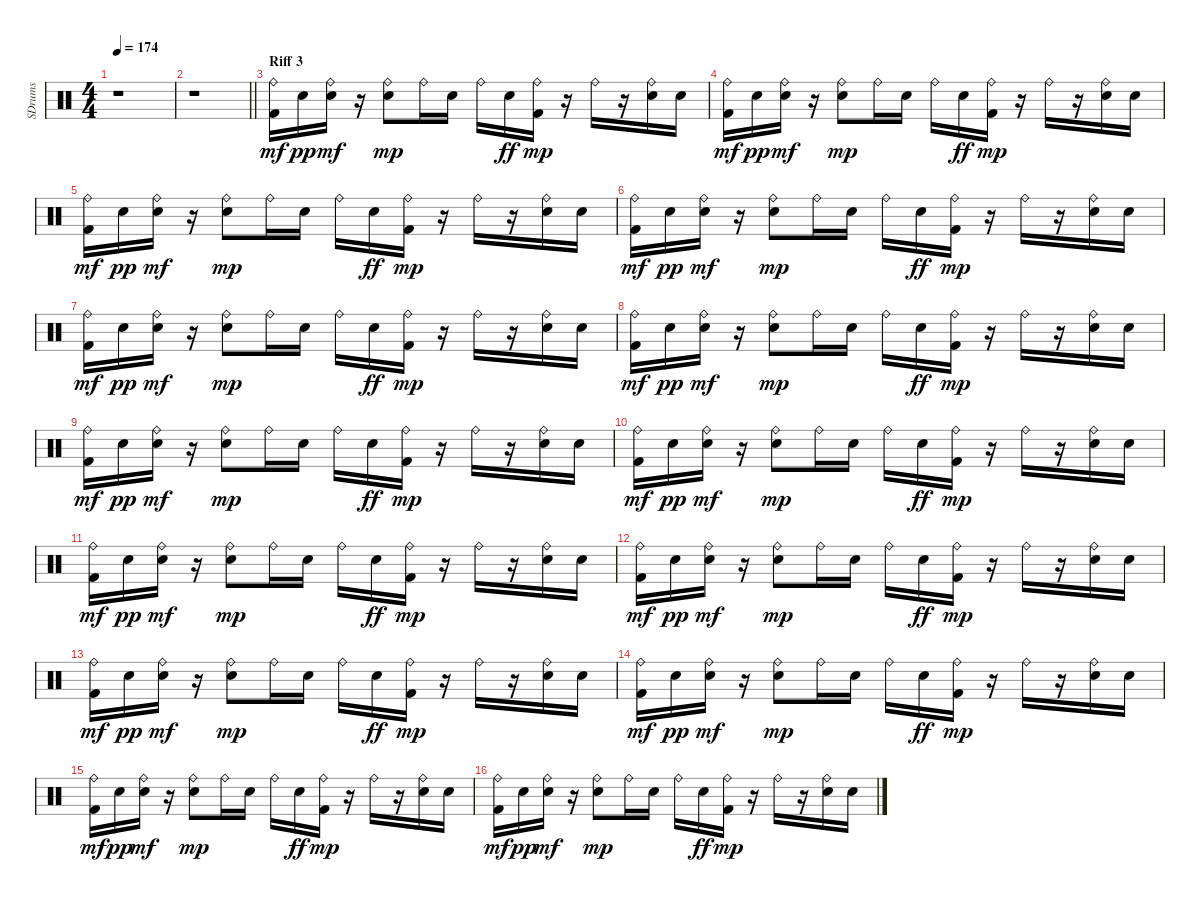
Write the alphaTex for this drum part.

\track ("SDrums" "SDrums") {instrument percussion}
\staff {score}
\articulation defaults
\ts (4 4)
\tempo 174
\clef neutral
\ks c
r.1{dy mp} |
\barLineRight lightlight
r.1 |
\section ("" "Riff 3")
("Kick (hit) 2" "Ride (bell)").16{dy mf} "Snare (hit) 2".16{dy pp} ("Snare (hit) 2" "Ride (bell)").16{dy mf} r.16 ("Snare (hit) 2" "Ride (bell)").8{dy mp} "Ride (bell)".16 "Snare (hit) 2".16 "Ride (bell)".16 "Snare (hit) 2".16{dy ff} ("Kick (hit) 2" "Ride (bell)").16{dy mp} r.16 "Ride (bell)".16 r.16 ("Snare (hit) 2" "Ride (bell)").16 "Snare (hit) 2".16 |
("Kick (hit) 2" "Ride (bell)").16{dy mf} "Snare (hit) 2".16{dy pp} ("Snare (hit) 2" "Ride (bell)").16{dy mf} r.16 ("Snare (hit) 2" "Ride (bell)").8{dy mp} "Ride (bell)".16 "Snare (hit) 2".16 "Ride (bell)".16 "Snare (hit) 2".16{dy ff} ("Kick (hit) 2" "Ride (bell)").16{dy mp} r.16 "Ride (bell)".16 r.16 ("Snare (hit) 2" "Ride (bell)").16 "Snare (hit) 2".16 |
("Kick (hit) 2" "Ride (bell)").16{dy mf} "Snare (hit) 2".16{dy pp} ("Snare (hit) 2" "Ride (bell)").16{dy mf} r.16 ("Snare (hit) 2" "Ride (bell)").8{dy mp} "Ride (bell)".16 "Snare (hit) 2".16 "Ride (bell)".16 "Snare (hit) 2".16{dy ff} ("Kick (hit) 2" "Ride (bell)").16{dy mp} r.16 "Ride (bell)".16 r.16 ("Snare (hit) 2" "Ride (bell)").16 "Snare (hit) 2".16 |
("Kick (hit) 2" "Ride (bell)").16{dy mf} "Snare (hit) 2".16{dy pp} ("Snare (hit) 2" "Ride (bell)").16{dy mf} r.16 ("Snare (hit) 2" "Ride (bell)").8{dy mp} "Ride (bell)".16 "Snare (hit) 2".16 "Ride (bell)".16 "Snare (hit) 2".16{dy ff} ("Kick (hit) 2" "Ride (bell)").16{dy mp} r.16 "Ride (bell)".16 r.16 ("Snare (hit) 2" "Ride (bell)").16 "Snare (hit) 2".16 |
("Kick (hit) 2" "Ride (bell)").16{dy mf} "Snare (hit) 2".16{dy pp} ("Snare (hit) 2" "Ride (bell)").16{dy mf} r.16 ("Snare (hit) 2" "Ride (bell)").8{dy mp} "Ride (bell)".16 "Snare (hit) 2".16 "Ride (bell)".16 "Snare (hit) 2".16{dy ff} ("Kick (hit) 2" "Ride (bell)").16{dy mp} r.16 "Ride (bell)".16 r.16 ("Snare (hit) 2" "Ride (bell)").16 "Snare (hit) 2".16 |
("Kick (hit) 2" "Ride (bell)").16{dy mf} "Snare (hit) 2".16{dy pp} ("Snare (hit) 2" "Ride (bell)").16{dy mf} r.16 ("Snare (hit) 2" "Ride (bell)").8{dy mp} "Ride (bell)".16 "Snare (hit) 2".16 "Ride (bell)".16 "Snare (hit) 2".16{dy ff} ("Kick (hit) 2" "Ride (bell)").16{dy mp} r.16 "Ride (bell)".16 r.16 ("Snare (hit) 2" "Ride (bell)").16 "Snare (hit) 2".16 |
("Kick (hit) 2" "Ride (bell)").16{dy mf} "Snare (hit) 2".16{dy pp} ("Snare (hit) 2" "Ride (bell)").16{dy mf} r.16 ("Snare (hit) 2" "Ride (bell)").8{dy mp} "Ride (bell)".16 "Snare (hit) 2".16 "Ride (bell)".16 "Snare (hit) 2".16{dy ff} ("Kick (hit) 2" "Ride (bell)").16{dy mp} r.16 "Ride (bell)".16 r.16 ("Snare (hit) 2" "Ride (bell)").16 "Snare (hit) 2".16 |
("Kick (hit) 2" "Ride (bell)").16{dy mf} "Snare (hit) 2".16{dy pp} ("Snare (hit) 2" "Ride (bell)").16{dy mf} r.16 ("Snare (hit) 2" "Ride (bell)").8{dy mp} "Ride (bell)".16 "Snare (hit) 2".16 "Ride (bell)".16 "Snare (hit) 2".16{dy ff} ("Kick (hit) 2" "Ride (bell)").16{dy mp} r.16 "Ride (bell)".16 r.16 ("Snare (hit) 2" "Ride (bell)").16 "Snare (hit) 2".16 |
("Kick (hit) 2" "Ride (bell)").16{dy mf} "Snare (hit) 2".16{dy pp} ("Snare (hit) 2" "Ride (bell)").16{dy mf} r.16 ("Snare (hit) 2" "Ride (bell)").8{dy mp} "Ride (bell)".16 "Snare (hit) 2".16 "Ride (bell)".16 "Snare (hit) 2".16{dy ff} ("Kick (hit) 2" "Ride (bell)").16{dy mp} r.16 "Ride (bell)".16 r.16 ("Snare (hit) 2" "Ride (bell)").16 "Snare (hit) 2".16 |
("Kick (hit) 2" "Ride (bell)").16{dy mf} "Snare (hit) 2".16{dy pp} ("Snare (hit) 2" "Ride (bell)").16{dy mf} r.16 ("Snare (hit) 2" "Ride (bell)").8{dy mp} "Ride (bell)".16 "Snare (hit) 2".16 "Ride (bell)".16 "Snare (hit) 2".16{dy ff} ("Kick (hit) 2" "Ride (bell)").16{dy mp} r.16 "Ride (bell)".16 r.16 ("Snare (hit) 2" "Ride (bell)").16 "Snare (hit) 2".16 |
("Kick (hit) 2" "Ride (bell)").16{dy mf} "Snare (hit) 2".16{dy pp} ("Snare (hit) 2" "Ride (bell)").16{dy mf} r.16 ("Snare (hit) 2" "Ride (bell)").8{dy mp} "Ride (bell)".16 "Snare (hit) 2".16 "Ride (bell)".16 "Snare (hit) 2".16{dy ff} ("Kick (hit) 2" "Ride (bell)").16{dy mp} r.16 "Ride (bell)".16 r.16 ("Snare (hit) 2" "Ride (bell)").16 "Snare (hit) 2".16 |
("Kick (hit) 2" "Ride (bell)").16{dy mf} "Snare (hit) 2".16{dy pp} ("Snare (hit) 2" "Ride (bell)").16{dy mf} r.16 ("Snare (hit) 2" "Ride (bell)").8{dy mp} "Ride (bell)".16 "Snare (hit) 2".16 "Ride (bell)".16 "Snare (hit) 2".16{dy ff} ("Kick (hit) 2" "Ride (bell)").16{dy mp} r.16 "Ride (bell)".16 r.16 ("Snare (hit) 2" "Ride (bell)").16 "Snare (hit) 2".16 |
("Kick (hit) 2" "Ride (bell)").16{dy mf} "Snare (hit) 2".16{dy pp} ("Snare (hit) 2" "Ride (bell)").16{dy mf} r.16 ("Snare (hit) 2" "Ride (bell)").8{dy mp} "Ride (bell)".16 "Snare (hit) 2".16 "Ride (bell)".16 "Snare (hit) 2".16{dy ff} ("Kick (hit) 2" "Ride (bell)").16{dy mp} r.16 "Ride (bell)".16 r.16 ("Snare (hit) 2" "Ride (bell)").16 "Snare (hit) 2".16 |
("Kick (hit) 2" "Ride (bell)").16{dy mf} "Snare (hit) 2".16{dy pp} ("Snare (hit) 2" "Ride (bell)").16{dy mf} r.16 ("Snare (hit) 2" "Ride (bell)").8{dy mp} "Ride (bell)".16 "Snare (hit) 2".16 "Ride (bell)".16 "Snare (hit) 2".16{dy ff} ("Kick (hit) 2" "Ride (bell)").16{dy mp} r.16 "Ride (bell)".16 r.16 ("Snare (hit) 2" "Ride (bell)").16 "Snare (hit) 2".16
